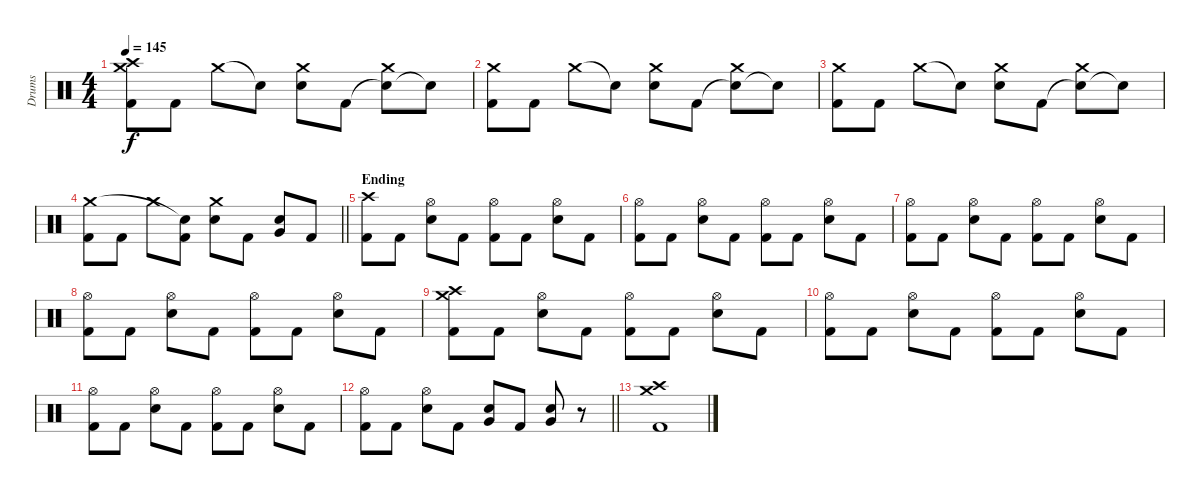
\track ("Drums" "Drums") {instrument percussion}
\staff {score}
\articulation defaults
\ts (4 4)
\tempo 145
\clef neutral
\ks c
("Kick (hit) 2" "Crash medium (hit)" "Crash high (hit)").8{dy f} "Kick (hit) 2".8 "Crash medium (hit)".8 "Snare (hit)"{t}.8 ("Electric Snare (hit)" "Crash medium (hit)").8 "Kick (hit) 2".8 ("Snare (hit)"{t} "Crash medium (hit)").8 "Snare (hit)"{t}.8 |
("Kick (hit) 2" "Crash medium (hit)").8 "Kick (hit) 2".8 "Crash medium (hit)".8 "Snare (hit)"{t}.8 ("Electric Snare (hit)" "Crash medium (hit)").8 "Kick (hit) 2".8 ("Snare (hit)"{t} "Crash medium (hit)").8 "Snare (hit)"{t}.8 |
("Kick (hit) 2" "Crash medium (hit)").8 "Kick (hit) 2".8 "Crash medium (hit)".8 "Snare (hit)"{t}.8 ("Electric Snare (hit)" "Crash medium (hit)").8 "Kick (hit) 2".8 ("Snare (hit)"{t} "Crash medium (hit)").8 "Snare (hit)"{t}.8 |
\barLineRight lightlight
("Kick (hit) 2" "Crash medium (hit)").8 "Kick (hit) 2".8 "Crash medium (hit)".8 ("Kick (hit) 2" "Snare (hit)"{t}).8 ("Electric Snare (hit)" "Crash medium (hit)").8 "Kick (hit) 2".8 ("Electric Snare (hit)" "Very Low Tom (hit)").8 "Kick (hit) 2".8 |
\section ("" "Ending")
("Kick (hit) 2" "Crash high (hit)").8 "Kick (hit) 2".8 ("Electric Snare (hit)" "Hi-Hat (open)").8 "Kick (hit) 2".8 ("Kick (hit) 2" "Hi-Hat (open)").8 "Kick (hit) 2".8 ("Electric Snare (hit)" "Hi-Hat (open)").8 "Kick (hit) 2".8 |
("Kick (hit) 2" "Hi-Hat (open)").8 "Kick (hit) 2".8 ("Electric Snare (hit)" "Hi-Hat (open)").8 "Kick (hit) 2".8 ("Kick (hit) 2" "Hi-Hat (open)").8 "Kick (hit) 2".8 ("Electric Snare (hit)" "Hi-Hat (open)").8 "Kick (hit) 2".8 |
("Kick (hit) 2" "Hi-Hat (open)").8 "Kick (hit) 2".8 ("Electric Snare (hit)" "Hi-Hat (open)").8 "Kick (hit) 2".8 ("Kick (hit) 2" "Hi-Hat (open)").8 "Kick (hit) 2".8 ("Electric Snare (hit)" "Hi-Hat (open)").8 "Kick (hit) 2".8 |
("Kick (hit) 2" "Hi-Hat (open)").8 "Kick (hit) 2".8 ("Electric Snare (hit)" "Hi-Hat (open)").8 "Kick (hit) 2".8 ("Kick (hit) 2" "Hi-Hat (open)").8 "Kick (hit) 2".8 ("Electric Snare (hit)" "Hi-Hat (open)").8 "Kick (hit) 2".8 |
("Kick (hit) 2" "Crash medium (hit)" "Crash high (hit)").8 "Kick (hit) 2".8 ("Electric Snare (hit)" "Hi-Hat (open)").8 "Kick (hit) 2".8 ("Kick (hit) 2" "Hi-Hat (open)").8 "Kick (hit) 2".8 ("Electric Snare (hit)" "Hi-Hat (open)").8 "Kick (hit) 2".8 |
("Kick (hit) 2" "Hi-Hat (open)").8 "Kick (hit) 2".8 ("Electric Snare (hit)" "Hi-Hat (open)").8 "Kick (hit) 2".8 ("Kick (hit) 2" "Hi-Hat (open)").8 "Kick (hit) 2".8 ("Electric Snare (hit)" "Hi-Hat (open)").8 "Kick (hit) 2".8 |
("Kick (hit) 2" "Hi-Hat (open)").8 "Kick (hit) 2".8 ("Electric Snare (hit)" "Hi-Hat (open)").8 "Kick (hit) 2".8 ("Kick (hit) 2" "Hi-Hat (open)").8 "Kick (hit) 2".8 ("Electric Snare (hit)" "Hi-Hat (open)").8 "Kick (hit) 2".8 |
\barLineRight lightlight
("Kick (hit) 2" "Hi-Hat (open)").8 "Kick (hit) 2".8 ("Electric Snare (hit)" "Hi-Hat (open)").8 "Kick (hit) 2".8 ("Electric Snare (hit)" "Very Low Tom (hit)").8 "Kick (hit) 2".8 ("Electric Snare (hit)" "Very Low Tom (hit)").8 r.8 |
("Kick (hit) 2" "Crash medium (hit)" "Crash high (hit)").1
